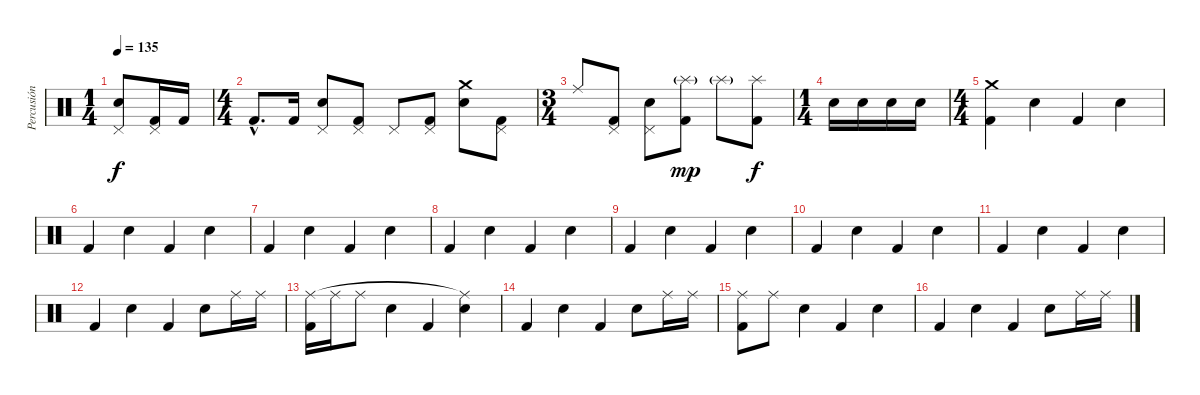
\track ("Percusión" "Percusión") {instrument percussion}
\staff {score}
\articulation defaults
\ts (1 4)
\tempo 135
\clef neutral
\ks c
("Snare (hit) 2" "Pedal Hi-Hat (hit)").8{dy f} ("Kick (hit) 2" "Pedal Hi-Hat (hit)").16 "Kick (hit) 2".16 |
\ts (4 4)
"Kick (hit) 2"{hac}.8{d} "Kick (hit) 2".16 ("Snare (hit) 2" "Pedal Hi-Hat (hit)").8 ("Kick (hit) 2" "Pedal Hi-Hat (hit)").8 "Pedal Hi-Hat (hit)".8 ("Kick (hit) 2" "Pedal Hi-Hat (hit)").8 ("Snare (hit) 2" "Crash medium (hit)").8 ("Kick (hit) 2" "Pedal Hi-Hat (hit)").8 |
\ts (3 4)
"Ride (middle)".8 ("Kick (hit) 2" "Pedal Hi-Hat (hit)").8 ("Snare (hit) 2" "Pedal Hi-Hat (hit)").8 ("Kick (hit) 2" "Splash (hit)"{g}).8{dy mp} "Splash (hit)"{g}.8 ("Kick (hit) 2" "Splash (hit)").8{dy f} |
\ts (1 4)
"Snare (hit) 2".16 "Snare (hit) 2".16 "Snare (hit) 2".16 "Snare (hit) 2".16 |
\ts (4 4)
("Kick (hit) 2" "Crash medium (hit)").4 "Snare (hit) 2".4 "Kick (hit) 2".4 "Snare (hit) 2".4 |
"Kick (hit) 2".4 "Snare (hit) 2".4 "Kick (hit) 2".4 "Snare (hit) 2".4 |
"Kick (hit) 2".4 "Snare (hit) 2".4 "Kick (hit) 2".4 "Snare (hit) 2".4 |
"Kick (hit) 2".4 "Snare (hit) 2".4 "Kick (hit) 2".4 "Snare (hit) 2".4 |
"Kick (hit) 2".4 "Snare (hit) 2".4 "Kick (hit) 2".4 "Snare (hit) 2".4 |
"Kick (hit) 2".4 "Snare (hit) 2".4 "Kick (hit) 2".4 "Snare (hit) 2".4 |
"Kick (hit) 2".4 "Snare (hit) 2".4 "Kick (hit) 2".4 "Snare (hit) 2".4 |
"Kick (hit) 2".4 "Snare (hit) 2".4 "Kick (hit) 2".4 "Snare (hit) 2".8 "Ride (middle)".16 "Ride (middle)".16 |
("Kick (hit) 2" "Ride (middle)").16 "Ride (middle)".16 "Ride (middle)".8 "Snare (hit) 2".4 "Kick (hit) 2".4 ("Snare (hit) 2" "Ride (middle)"{t}).4 |
"Kick (hit) 2".4 "Snare (hit) 2".4 "Kick (hit) 2".4 "Snare (hit) 2".8 "Ride (middle)".16 "Ride (middle)".16 |
("Kick (hit) 2" "Ride (middle)").8 "Ride (middle)".8 "Snare (hit) 2".4 "Kick (hit) 2".4 "Snare (hit) 2".4 |
"Kick (hit) 2".4 "Snare (hit) 2".4 "Kick (hit) 2".4 "Snare (hit) 2".8 "Ride (middle)".16 "Ride (middle)".16
